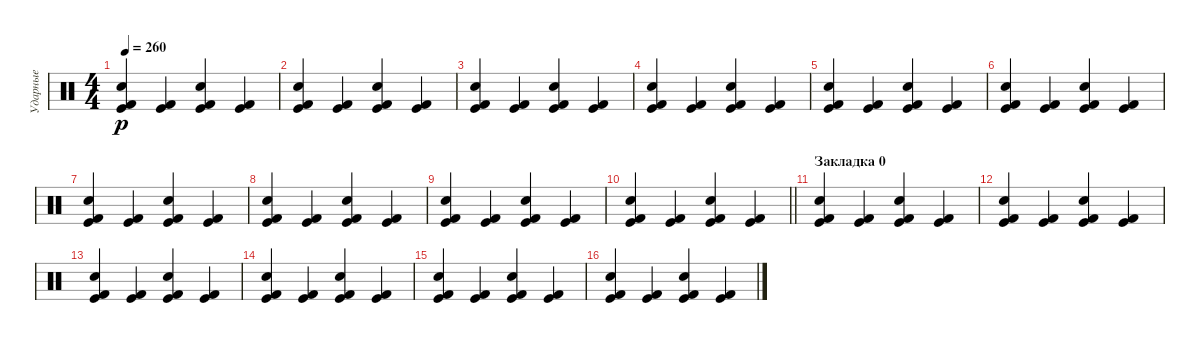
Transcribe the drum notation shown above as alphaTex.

\track ("Ударные" "Ударные") {instrument percussion}
\staff {score}
\articulation defaults
\ts (4 4)
\tempo 260
\clef neutral
\ks c
("Kick (hit) 2" "Kick (hit)" "Snare (hit) 2").4{dy p} ("Kick (hit)" "Kick (hit) 2").4 ("Kick (hit) 2" "Kick (hit)" "Snare (hit) 2").4 ("Kick (hit)" "Kick (hit) 2").4 |
("Kick (hit) 2" "Kick (hit)" "Snare (hit) 2").4 ("Kick (hit)" "Kick (hit) 2").4 ("Kick (hit) 2" "Kick (hit)" "Snare (hit) 2").4 ("Kick (hit)" "Kick (hit) 2").4 |
("Kick (hit) 2" "Kick (hit)" "Snare (hit) 2").4 ("Kick (hit)" "Kick (hit) 2").4 ("Kick (hit) 2" "Kick (hit)" "Snare (hit) 2").4 ("Kick (hit)" "Kick (hit) 2").4 |
("Kick (hit) 2" "Kick (hit)" "Snare (hit) 2").4 ("Kick (hit)" "Kick (hit) 2").4 ("Kick (hit) 2" "Kick (hit)" "Snare (hit) 2").4 ("Kick (hit)" "Kick (hit) 2").4 |
("Kick (hit) 2" "Kick (hit)" "Snare (hit) 2").4 ("Kick (hit)" "Kick (hit) 2").4 ("Kick (hit) 2" "Kick (hit)" "Snare (hit) 2").4 ("Kick (hit)" "Kick (hit) 2").4 |
("Kick (hit) 2" "Kick (hit)" "Snare (hit) 2").4 ("Kick (hit)" "Kick (hit) 2").4 ("Kick (hit) 2" "Kick (hit)" "Snare (hit) 2").4 ("Kick (hit)" "Kick (hit) 2").4 |
("Kick (hit) 2" "Kick (hit)" "Snare (hit) 2").4 ("Kick (hit)" "Kick (hit) 2").4 ("Kick (hit) 2" "Kick (hit)" "Snare (hit) 2").4 ("Kick (hit)" "Kick (hit) 2").4 |
("Kick (hit) 2" "Kick (hit)" "Snare (hit) 2").4 ("Kick (hit)" "Kick (hit) 2").4 ("Kick (hit) 2" "Kick (hit)" "Snare (hit) 2").4 ("Kick (hit)" "Kick (hit) 2").4 |
("Kick (hit) 2" "Kick (hit)" "Snare (hit) 2").4 ("Kick (hit)" "Kick (hit) 2").4 ("Kick (hit) 2" "Kick (hit)" "Snare (hit) 2").4 ("Kick (hit)" "Kick (hit) 2").4 |
\barLineRight lightlight
("Kick (hit) 2" "Kick (hit)" "Snare (hit) 2").4 ("Kick (hit)" "Kick (hit) 2").4 ("Kick (hit) 2" "Kick (hit)" "Snare (hit) 2").4 ("Kick (hit)" "Kick (hit) 2").4 |
\section ("" "Закладка 0")
("Kick (hit) 2" "Kick (hit)" "Snare (hit) 2").4 ("Kick (hit)" "Kick (hit) 2").4 ("Kick (hit) 2" "Kick (hit)" "Snare (hit) 2").4 ("Kick (hit)" "Kick (hit) 2").4 |
("Kick (hit) 2" "Kick (hit)" "Snare (hit) 2").4 ("Kick (hit)" "Kick (hit) 2").4 ("Kick (hit) 2" "Kick (hit)" "Snare (hit) 2").4 ("Kick (hit)" "Kick (hit) 2").4 |
("Kick (hit) 2" "Kick (hit)" "Snare (hit) 2").4 ("Kick (hit)" "Kick (hit) 2").4 ("Kick (hit) 2" "Kick (hit)" "Snare (hit) 2").4 ("Kick (hit)" "Kick (hit) 2").4 |
("Kick (hit) 2" "Kick (hit)" "Snare (hit) 2").4 ("Kick (hit)" "Kick (hit) 2").4 ("Kick (hit) 2" "Kick (hit)" "Snare (hit) 2").4 ("Kick (hit)" "Kick (hit) 2").4 |
("Kick (hit) 2" "Kick (hit)" "Snare (hit) 2").4 ("Kick (hit)" "Kick (hit) 2").4 ("Kick (hit) 2" "Kick (hit)" "Snare (hit) 2").4 ("Kick (hit)" "Kick (hit) 2").4 |
("Kick (hit) 2" "Kick (hit)" "Snare (hit) 2").4 ("Kick (hit)" "Kick (hit) 2").4 ("Kick (hit) 2" "Kick (hit)" "Snare (hit) 2").4 ("Kick (hit)" "Kick (hit) 2").4
